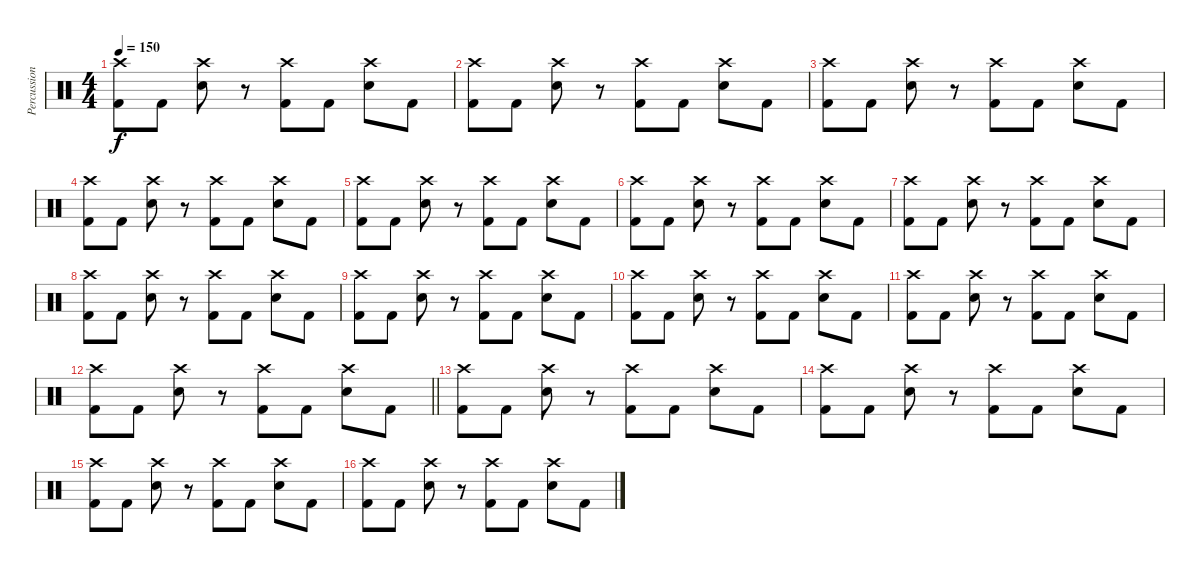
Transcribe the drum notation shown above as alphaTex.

\track ("Percussion" "Percussion") {instrument percussion}
\staff {score}
\articulation defaults
\ts (4 4)
\tempo 150
\clef neutral
\ks c
("Crash high (hit)" "Kick (hit) 2").8{dy f} "Kick (hit) 2".8 ("Crash high (hit)" "Electric Snare (hit)").8 r.8 ("Crash high (hit)" "Kick (hit) 2").8 "Kick (hit) 2".8 ("Crash high (hit)" "Electric Snare (hit)").8 "Kick (hit) 2".8 |
("Crash high (hit)" "Kick (hit) 2").8 "Kick (hit) 2".8 ("Crash high (hit)" "Electric Snare (hit)").8 r.8 ("Crash high (hit)" "Kick (hit) 2").8 "Kick (hit) 2".8 ("Crash high (hit)" "Electric Snare (hit)").8 "Kick (hit) 2".8 |
("Crash high (hit)" "Kick (hit) 2").8 "Kick (hit) 2".8 ("Crash high (hit)" "Electric Snare (hit)").8 r.8 ("Crash high (hit)" "Kick (hit) 2").8 "Kick (hit) 2".8 ("Crash high (hit)" "Electric Snare (hit)").8 "Kick (hit) 2".8 |
("Crash high (hit)" "Kick (hit) 2").8 "Kick (hit) 2".8 ("Crash high (hit)" "Electric Snare (hit)").8 r.8 ("Crash high (hit)" "Kick (hit) 2").8 "Kick (hit) 2".8 ("Crash high (hit)" "Electric Snare (hit)").8 "Kick (hit) 2".8 |
("Crash high (hit)" "Kick (hit) 2").8 "Kick (hit) 2".8 ("Crash high (hit)" "Electric Snare (hit)").8 r.8 ("Crash high (hit)" "Kick (hit) 2").8 "Kick (hit) 2".8 ("Crash high (hit)" "Electric Snare (hit)").8 "Kick (hit) 2".8 |
("Crash high (hit)" "Kick (hit) 2").8 "Kick (hit) 2".8 ("Crash high (hit)" "Electric Snare (hit)").8 r.8 ("Crash high (hit)" "Kick (hit) 2").8 "Kick (hit) 2".8 ("Crash high (hit)" "Electric Snare (hit)").8 "Kick (hit) 2".8 |
("Crash high (hit)" "Kick (hit) 2").8 "Kick (hit) 2".8 ("Crash high (hit)" "Electric Snare (hit)").8 r.8 ("Crash high (hit)" "Kick (hit) 2").8 "Kick (hit) 2".8 ("Crash high (hit)" "Electric Snare (hit)").8 "Kick (hit) 2".8 |
("Crash high (hit)" "Kick (hit) 2").8 "Kick (hit) 2".8 ("Crash high (hit)" "Electric Snare (hit)").8 r.8 ("Crash high (hit)" "Kick (hit) 2").8 "Kick (hit) 2".8 ("Crash high (hit)" "Electric Snare (hit)").8 "Kick (hit) 2".8 |
("Crash high (hit)" "Kick (hit) 2").8 "Kick (hit) 2".8 ("Crash high (hit)" "Electric Snare (hit)").8 r.8 ("Crash high (hit)" "Kick (hit) 2").8 "Kick (hit) 2".8 ("Crash high (hit)" "Electric Snare (hit)").8 "Kick (hit) 2".8 |
("Crash high (hit)" "Kick (hit) 2").8 "Kick (hit) 2".8 ("Crash high (hit)" "Electric Snare (hit)").8 r.8 ("Crash high (hit)" "Kick (hit) 2").8 "Kick (hit) 2".8 ("Crash high (hit)" "Electric Snare (hit)").8 "Kick (hit) 2".8 |
("Crash high (hit)" "Kick (hit) 2").8 "Kick (hit) 2".8 ("Crash high (hit)" "Electric Snare (hit)").8 r.8 ("Crash high (hit)" "Kick (hit) 2").8 "Kick (hit) 2".8 ("Crash high (hit)" "Electric Snare (hit)").8 "Kick (hit) 2".8 |
\barLineRight lightlight
("Crash high (hit)" "Kick (hit) 2").8 "Kick (hit) 2".8 ("Crash high (hit)" "Electric Snare (hit)").8 r.8 ("Crash high (hit)" "Kick (hit) 2").8 "Kick (hit) 2".8 ("Crash high (hit)" "Electric Snare (hit)").8 "Kick (hit) 2".8 |
("Crash high (hit)" "Kick (hit) 2").8 "Kick (hit) 2".8 ("Crash high (hit)" "Electric Snare (hit)").8 r.8 ("Crash high (hit)" "Kick (hit) 2").8 "Kick (hit) 2".8 ("Crash high (hit)" "Electric Snare (hit)").8 "Kick (hit) 2".8 |
("Crash high (hit)" "Kick (hit) 2").8 "Kick (hit) 2".8 ("Crash high (hit)" "Electric Snare (hit)").8 r.8 ("Crash high (hit)" "Kick (hit) 2").8 "Kick (hit) 2".8 ("Crash high (hit)" "Electric Snare (hit)").8 "Kick (hit) 2".8 |
("Crash high (hit)" "Kick (hit) 2").8 "Kick (hit) 2".8 ("Crash high (hit)" "Electric Snare (hit)").8 r.8 ("Crash high (hit)" "Kick (hit) 2").8 "Kick (hit) 2".8 ("Crash high (hit)" "Electric Snare (hit)").8 "Kick (hit) 2".8 |
("Crash high (hit)" "Kick (hit) 2").8 "Kick (hit) 2".8 ("Crash high (hit)" "Electric Snare (hit)").8 r.8 ("Crash high (hit)" "Kick (hit) 2").8 "Kick (hit) 2".8 ("Crash high (hit)" "Electric Snare (hit)").8 "Kick (hit) 2".8
